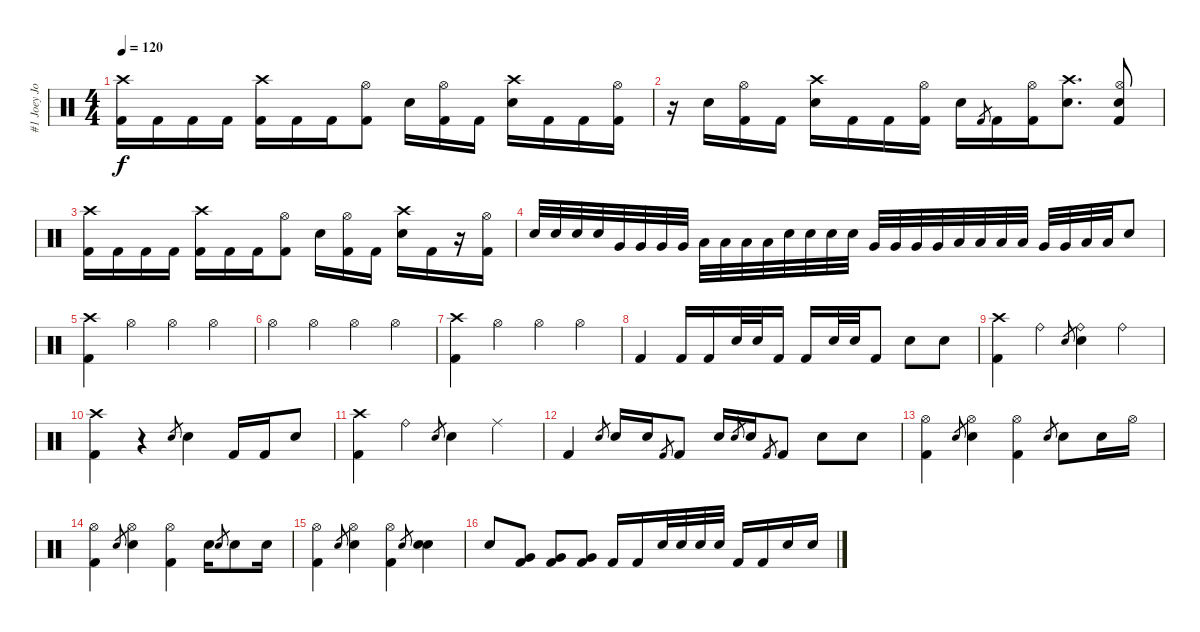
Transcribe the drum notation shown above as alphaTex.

\track ("#1 Joey Jordison" "#1 Joey Jo") {instrument percussion}
\staff {score}
\articulation defaults
\ts (4 4)
\tempo 120
\clef neutral
\ks c
("Crash high (hit)" "Kick (hit) 2").16{dy f} "Kick (hit) 2".16 "Kick (hit) 2".16 "Kick (hit) 2".16 ("Crash high (hit)" "Kick (hit) 2").16 "Kick (hit) 2".16 "Kick (hit) 2".16 ("Hi-Hat (open)" "Kick (hit) 2").8 "Electric Snare (hit)".16 ("Hi-Hat (open)" "Kick (hit) 2").16 "Kick (hit) 2".16 ("Crash high (hit)" "Electric Snare (hit)").16 "Kick (hit) 2".16 "Kick (hit) 2".16 ("Hi-Hat (open)" "Kick (hit) 2").16 |
r.16 "Electric Snare (hit)".16 ("Hi-Hat (open)" "Kick (hit) 2").16 "Kick (hit) 2".16 ("Crash high (hit)" "Electric Snare (hit)").16 "Kick (hit) 2".16 "Kick (hit) 2".16 ("Hi-Hat (open)" "Kick (hit) 2").16 "Electric Snare (hit)".16 "Kick (hit) 2".8{gr} "Kick (hit) 2".16 ("Hi-Hat (open)" "Kick (hit) 2").16 ("Crash high (hit)" "Electric Snare (hit)").8{d} ("Hi-Hat (open)" "Electric Snare (hit)" "Kick (hit) 2").8 |
("Crash high (hit)" "Kick (hit) 2").16 "Kick (hit) 2".16 "Kick (hit) 2".16 "Kick (hit) 2".16 ("Crash high (hit)" "Kick (hit) 2").16 "Kick (hit) 2".16 "Kick (hit) 2".16 ("Hi-Hat (open)" "Kick (hit) 2").8 "Electric Snare (hit)".16 ("Hi-Hat (open)" "Kick (hit) 2").16 "Kick (hit) 2".16 ("Crash high (hit)" "Electric Snare (hit)").16 "Kick (hit) 2".16 r.16 ("Hi-Hat (open)" "Kick (hit) 2").16 |
"Electric Snare (hit)".32 "Electric Snare (hit)".32 "Electric Snare (hit)".32 "Electric Snare (hit)".32 "Very Low Tom (hit)".32 "Very Low Tom (hit)".32 "Very Low Tom (hit)".32 "Very Low Tom (hit)".32 "Low Floor Tom (hit)".32 "Low Floor Tom (hit)".32 "Low Floor Tom (hit)".32 "Low Floor Tom (hit)".32 "Electric Snare (hit)".32 "Electric Snare (hit)".32 "Electric Snare (hit)".32 "Electric Snare (hit)".32 "Very Low Tom (hit)".32 "Very Low Tom (hit)".32 "Very Low Tom (hit)".32 "Very Low Tom (hit)".32 "Low Floor Tom (hit)".32 "Low Floor Tom (hit)".32 "Low Floor Tom (hit)".32 "Low Floor Tom (hit)".32 "Very Low Tom (hit)".32 "Very Low Tom (hit)".32 "Low Floor Tom (hit)".32 "Low Floor Tom (hit)".32 "Electric Snare (hit)".8 |
("Crash high (hit)" "Kick (hit) 2").4 "Hi-Hat (open)".4 "Hi-Hat (open)".4 "Hi-Hat (open)".4 |
"Hi-Hat (open)".4 "Hi-Hat (open)".4 "Hi-Hat (open)".4 "Hi-Hat (open)".4 |
("Crash high (hit)" "Kick (hit) 2").4 "Hi-Hat (open)".4 "Hi-Hat (open)".4 "Hi-Hat (open)".4 |
"Kick (hit) 2".4 "Kick (hit) 2".16 "Kick (hit) 2".16 "Electric Snare (hit)".32 "Electric Snare (hit)".32 "Kick (hit) 2".16 "Kick (hit) 2".16 "Electric Snare (hit)".32 "Electric Snare (hit)".32 "Kick (hit) 2".8 "Electric Snare (hit)".8 "Electric Snare (hit)".8 |
("Crash high (hit)" "Kick (hit) 2").4 "Ride (bell)".4 "Electric Snare (hit)".8{gr} ("Ride (bell)" "Electric Snare (hit)").4 "Ride (bell)".4 |
("Crash high (hit)" "Kick (hit) 2").4 r.4 "Electric Snare (hit)".8{gr} "Electric Snare (hit)".4 "Kick (hit) 2".16 "Kick (hit) 2".16 "Electric Snare (hit)".8 |
("Crash high (hit)" "Kick (hit) 2").4 "Ride (bell)".4 "Electric Snare (hit)".8{gr} "Electric Snare (hit)".4 "Ride (middle)".4 |
"Kick (hit) 2".4 "Electric Snare (hit)".8{gr} "Electric Snare (hit)".16 "Electric Snare (hit)".16 "Kick (hit) 2".8{gr} "Kick (hit) 2".8 "Electric Snare (hit)".16 "Electric Snare (hit)".8{gr} "Electric Snare (hit)".16 "Kick (hit) 2".8{gr} "Kick (hit) 2".8 "Electric Snare (hit)".8 "Electric Snare (hit)".8 |
("Hi-Hat (open)" "Kick (hit) 2").4 "Electric Snare (hit)".8{gr} ("Hi-Hat (open)" "Electric Snare (hit)").4 ("Hi-Hat (open)" "Kick (hit) 2").4 "Electric Snare (hit)".8{gr} "Electric Snare (hit)".8 "Electric Snare (hit)".16 "Hi-Hat (open)".16 |
("Hi-Hat (open)" "Kick (hit) 2").4 "Electric Snare (hit)".8{gr} ("Hi-Hat (open)" "Electric Snare (hit)").4 ("Hi-Hat (open)" "Kick (hit) 2").4 "Electric Snare (hit)".16 "Electric Snare (hit)".8{gr} "Electric Snare (hit)".8 "Electric Snare (hit)".16 |
("Hi-Hat (open)" "Kick (hit) 2").4 "Electric Snare (hit)".8{gr} ("Hi-Hat (open)" "Electric Snare (hit)").4 ("Hi-Hat (open)" "Kick (hit) 2").4 "Electric Snare (hit)".8{gr} ("Electric Snare (hit)" "Electric Snare (hit)").4 |
"Electric Snare (hit)".8 ("Very Low Tom (hit)" "Kick (hit) 2").8 ("Very Low Tom (hit)" "Kick (hit) 2").8 ("Very Low Tom (hit)" "Kick (hit) 2").8 "Kick (hit) 2".16 "Kick (hit) 2".16 "Electric Snare (hit)".32 "Electric Snare (hit)".32 "Electric Snare (hit)".32 "Electric Snare (hit)".32 "Kick (hit) 2".16 "Kick (hit) 2".16 "Electric Snare (hit)".16 "Electric Snare (hit)".16
